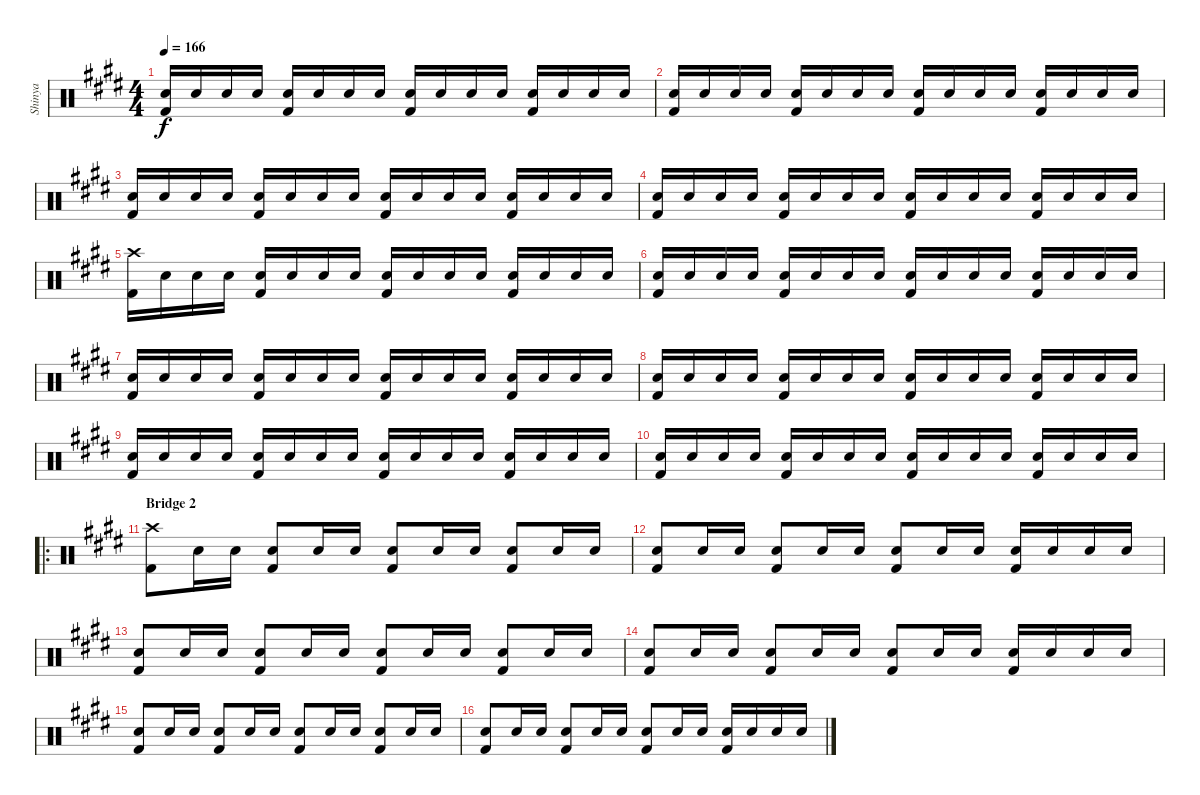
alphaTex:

\track ("Shinya" "Shinya") {instrument percussion}
\staff {score}
\articulation defaults
\ts (4 4)
\tempo 166
\clef neutral
\ks e
("Snare (hit) 2" "Kick (hit) 2").16{dy f} "Snare (hit) 2".16 "Snare (hit) 2".16 "Snare (hit) 2".16 ("Snare (hit) 2" "Kick (hit) 2").16 "Snare (hit) 2".16 "Snare (hit) 2".16 "Snare (hit) 2".16 ("Snare (hit) 2" "Kick (hit) 2").16 "Snare (hit) 2".16 "Snare (hit) 2".16 "Snare (hit) 2".16 ("Snare (hit) 2" "Kick (hit) 2").16 "Snare (hit) 2".16 "Snare (hit) 2".16 "Snare (hit) 2".16 |
("Snare (hit) 2" "Kick (hit) 2").16 "Snare (hit) 2".16 "Snare (hit) 2".16 "Snare (hit) 2".16 ("Snare (hit) 2" "Kick (hit) 2").16 "Snare (hit) 2".16 "Snare (hit) 2".16 "Snare (hit) 2".16 ("Snare (hit) 2" "Kick (hit) 2").16 "Snare (hit) 2".16 "Snare (hit) 2".16 "Snare (hit) 2".16 ("Snare (hit) 2" "Kick (hit) 2").16 "Snare (hit) 2".16 "Snare (hit) 2".16 "Snare (hit) 2".16 |
("Snare (hit) 2" "Kick (hit) 2").16 "Snare (hit) 2".16 "Snare (hit) 2".16 "Snare (hit) 2".16 ("Snare (hit) 2" "Kick (hit) 2").16 "Snare (hit) 2".16 "Snare (hit) 2".16 "Snare (hit) 2".16 ("Snare (hit) 2" "Kick (hit) 2").16 "Snare (hit) 2".16 "Snare (hit) 2".16 "Snare (hit) 2".16 ("Snare (hit) 2" "Kick (hit) 2").16 "Snare (hit) 2".16 "Snare (hit) 2".16 "Snare (hit) 2".16 |
("Snare (hit) 2" "Kick (hit) 2").16 "Snare (hit) 2".16 "Snare (hit) 2".16 "Snare (hit) 2".16 ("Snare (hit) 2" "Kick (hit) 2").16 "Snare (hit) 2".16 "Snare (hit) 2".16 "Snare (hit) 2".16 ("Snare (hit) 2" "Kick (hit) 2").16 "Snare (hit) 2".16 "Snare (hit) 2".16 "Snare (hit) 2".16 ("Snare (hit) 2" "Kick (hit) 2").16 "Snare (hit) 2".16 "Snare (hit) 2".16 "Snare (hit) 2".16 |
("Crash high (hit)" "Kick (hit) 2").16 "Snare (hit) 2".16 "Snare (hit) 2".16 "Snare (hit) 2".16 ("Snare (hit) 2" "Kick (hit) 2").16 "Snare (hit) 2".16 "Snare (hit) 2".16 "Snare (hit) 2".16 ("Snare (hit) 2" "Kick (hit) 2").16 "Snare (hit) 2".16 "Snare (hit) 2".16 "Snare (hit) 2".16 ("Snare (hit) 2" "Kick (hit) 2").16 "Snare (hit) 2".16 "Snare (hit) 2".16 "Snare (hit) 2".16 |
("Snare (hit) 2" "Kick (hit) 2").16 "Snare (hit) 2".16 "Snare (hit) 2".16 "Snare (hit) 2".16 ("Snare (hit) 2" "Kick (hit) 2").16 "Snare (hit) 2".16 "Snare (hit) 2".16 "Snare (hit) 2".16 ("Snare (hit) 2" "Kick (hit) 2").16 "Snare (hit) 2".16 "Snare (hit) 2".16 "Snare (hit) 2".16 ("Snare (hit) 2" "Kick (hit) 2").16 "Snare (hit) 2".16 "Snare (hit) 2".16 "Snare (hit) 2".16 |
("Snare (hit) 2" "Kick (hit) 2").16 "Snare (hit) 2".16 "Snare (hit) 2".16 "Snare (hit) 2".16 ("Snare (hit) 2" "Kick (hit) 2").16 "Snare (hit) 2".16 "Snare (hit) 2".16 "Snare (hit) 2".16 ("Snare (hit) 2" "Kick (hit) 2").16 "Snare (hit) 2".16 "Snare (hit) 2".16 "Snare (hit) 2".16 ("Snare (hit) 2" "Kick (hit) 2").16 "Snare (hit) 2".16 "Snare (hit) 2".16 "Snare (hit) 2".16 |
("Snare (hit) 2" "Kick (hit) 2").16 "Snare (hit) 2".16 "Snare (hit) 2".16 "Snare (hit) 2".16 ("Snare (hit) 2" "Kick (hit) 2").16 "Snare (hit) 2".16 "Snare (hit) 2".16 "Snare (hit) 2".16 ("Snare (hit) 2" "Kick (hit) 2").16 "Snare (hit) 2".16 "Snare (hit) 2".16 "Snare (hit) 2".16 ("Snare (hit) 2" "Kick (hit) 2").16 "Snare (hit) 2".16 "Snare (hit) 2".16 "Snare (hit) 2".16 |
("Snare (hit) 2" "Kick (hit) 2").16 "Snare (hit) 2".16 "Snare (hit) 2".16 "Snare (hit) 2".16 ("Snare (hit) 2" "Kick (hit) 2").16 "Snare (hit) 2".16 "Snare (hit) 2".16 "Snare (hit) 2".16 ("Snare (hit) 2" "Kick (hit) 2").16 "Snare (hit) 2".16 "Snare (hit) 2".16 "Snare (hit) 2".16 ("Snare (hit) 2" "Kick (hit) 2").16 "Snare (hit) 2".16 "Snare (hit) 2".16 "Snare (hit) 2".16 |
("Snare (hit) 2" "Kick (hit) 2").16 "Snare (hit) 2".16 "Snare (hit) 2".16 "Snare (hit) 2".16 ("Snare (hit) 2" "Kick (hit) 2").16 "Snare (hit) 2".16 "Snare (hit) 2".16 "Snare (hit) 2".16 ("Snare (hit) 2" "Kick (hit) 2").16 "Snare (hit) 2".16 "Snare (hit) 2".16 "Snare (hit) 2".16 ("Snare (hit) 2" "Kick (hit) 2").16 "Snare (hit) 2".16 "Snare (hit) 2".16 "Snare (hit) 2".16 |
\ro
\section ("" "Bridge 2")
("Crash high (hit)" "Kick (hit) 2").8 "Snare (hit) 2".16 "Snare (hit) 2".16 ("Snare (hit) 2" "Kick (hit) 2").8 "Snare (hit) 2".16 "Snare (hit) 2".16 ("Snare (hit) 2" "Kick (hit) 2").8 "Snare (hit) 2".16 "Snare (hit) 2".16 ("Snare (hit) 2" "Kick (hit) 2").8 "Snare (hit) 2".16 "Snare (hit) 2".16 |
("Snare (hit) 2" "Kick (hit) 2").8 "Snare (hit) 2".16 "Snare (hit) 2".16 ("Snare (hit) 2" "Kick (hit) 2").8 "Snare (hit) 2".16 "Snare (hit) 2".16 ("Snare (hit) 2" "Kick (hit) 2").8 "Snare (hit) 2".16 "Snare (hit) 2".16 ("Snare (hit) 2" "Kick (hit) 2").16 "Snare (hit) 2".16 "Snare (hit) 2".16 "Snare (hit) 2".16 |
("Snare (hit) 2" "Kick (hit) 2").8 "Snare (hit) 2".16 "Snare (hit) 2".16 ("Snare (hit) 2" "Kick (hit) 2").8 "Snare (hit) 2".16 "Snare (hit) 2".16 ("Snare (hit) 2" "Kick (hit) 2").8 "Snare (hit) 2".16 "Snare (hit) 2".16 ("Snare (hit) 2" "Kick (hit) 2").8 "Snare (hit) 2".16 "Snare (hit) 2".16 |
("Snare (hit) 2" "Kick (hit) 2").8 "Snare (hit) 2".16 "Snare (hit) 2".16 ("Snare (hit) 2" "Kick (hit) 2").8 "Snare (hit) 2".16 "Snare (hit) 2".16 ("Snare (hit) 2" "Kick (hit) 2").8 "Snare (hit) 2".16 "Snare (hit) 2".16 ("Snare (hit) 2" "Kick (hit) 2").16 "Snare (hit) 2".16 "Snare (hit) 2".16 "Snare (hit) 2".16 |
("Snare (hit) 2" "Kick (hit) 2").8 "Snare (hit) 2".16 "Snare (hit) 2".16 ("Snare (hit) 2" "Kick (hit) 2").8 "Snare (hit) 2".16 "Snare (hit) 2".16 ("Snare (hit) 2" "Kick (hit) 2").8 "Snare (hit) 2".16 "Snare (hit) 2".16 ("Snare (hit) 2" "Kick (hit) 2").8 "Snare (hit) 2".16 "Snare (hit) 2".16 |
("Snare (hit) 2" "Kick (hit) 2").8 "Snare (hit) 2".16 "Snare (hit) 2".16 ("Snare (hit) 2" "Kick (hit) 2").8 "Snare (hit) 2".16 "Snare (hit) 2".16 ("Snare (hit) 2" "Kick (hit) 2").8 "Snare (hit) 2".16 "Snare (hit) 2".16 ("Snare (hit) 2" "Kick (hit) 2").16 "Snare (hit) 2".16 "Snare (hit) 2".16 "Snare (hit) 2".16
